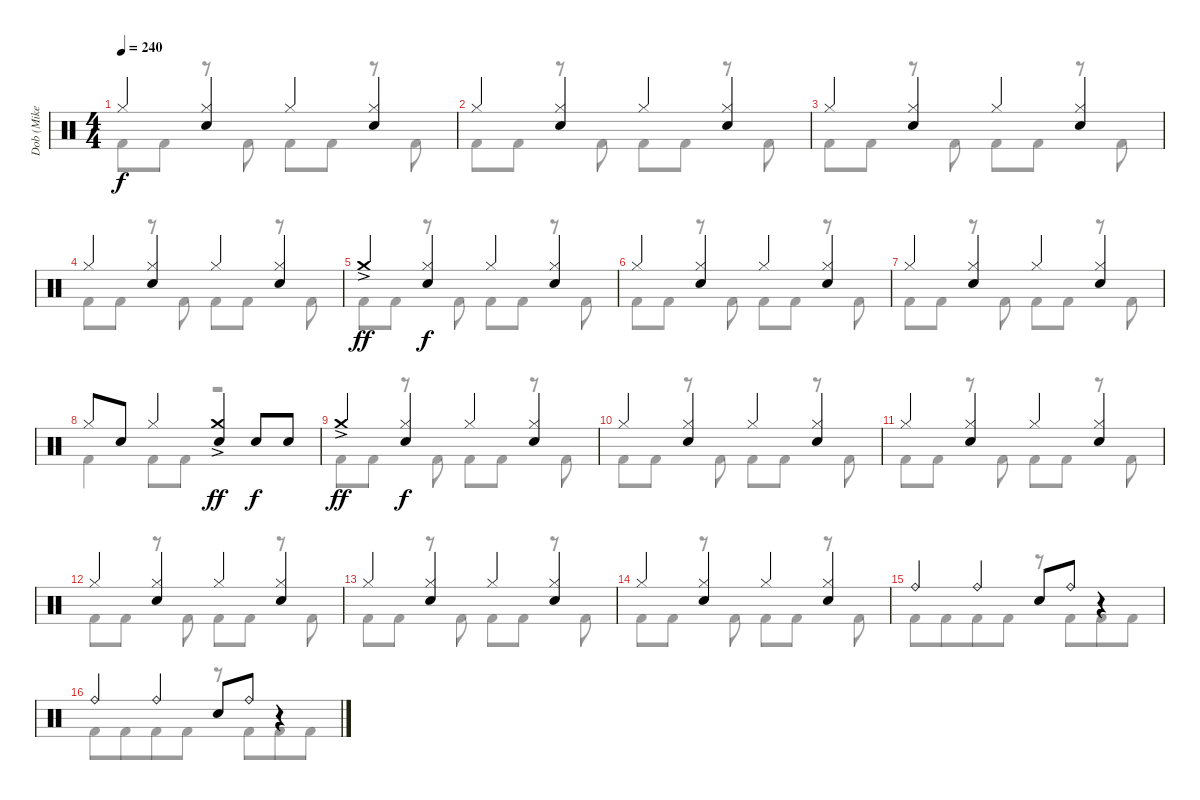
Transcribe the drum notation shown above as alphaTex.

\track ("Dob (Mike Terrana)" "Dob (Mike ") {instrument percussion}
\staff {score}
\articulation defaults
\voice
\ts (4 4)
\tempo 240
\clef neutral
\ks c "Hi-Hat (closed)".4{dy f}
("Hi-Hat (closed)" "Electric Snare (hit)").4 "Hi-Hat (closed)".4 ("Hi-Hat (closed)" "Electric Snare (hit)").4 |
"Hi-Hat (closed)".4 ("Hi-Hat (closed)" "Electric Snare (hit)").4 "Hi-Hat (closed)".4 ("Hi-Hat (closed)" "Electric Snare (hit)").4 |
"Hi-Hat (closed)".4 ("Hi-Hat (closed)" "Electric Snare (hit)").4 "Hi-Hat (closed)".4 ("Hi-Hat (closed)" "Electric Snare (hit)").4 |
"Hi-Hat (closed)".4 ("Hi-Hat (closed)" "Electric Snare (hit)").4 "Hi-Hat (closed)".4 ("Hi-Hat (closed)" "Electric Snare (hit)").4 |
"Crash medium (hit)"{ac}.4{dy ff} ("Hi-Hat (closed)" "Electric Snare (hit)").4{dy f} "Hi-Hat (closed)".4 ("Hi-Hat (closed)" "Electric Snare (hit)").4 |
"Hi-Hat (closed)".4 ("Hi-Hat (closed)" "Electric Snare (hit)").4 "Hi-Hat (closed)".4 ("Hi-Hat (closed)" "Electric Snare (hit)").4 |
"Hi-Hat (closed)".4 ("Hi-Hat (closed)" "Electric Snare (hit)").4 "Hi-Hat (closed)".4 ("Hi-Hat (closed)" "Electric Snare (hit)").4 |
"Hi-Hat (closed)".8 "Electric Snare (hit)".8 "Hi-Hat (closed)".4 ("Crash medium (hit)"{ac} "Electric Snare (hit)").4{dy ff} "Electric Snare (hit)".8{dy f} "Electric Snare (hit)".8 |
"Crash medium (hit)"{ac}.4{dy ff} ("Hi-Hat (closed)" "Electric Snare (hit)").4{dy f} "Hi-Hat (closed)".4 ("Hi-Hat (closed)" "Electric Snare (hit)").4 |
"Hi-Hat (closed)".4 ("Hi-Hat (closed)" "Electric Snare (hit)").4 "Hi-Hat (closed)".4 ("Hi-Hat (closed)" "Electric Snare (hit)").4 |
"Hi-Hat (closed)".4 ("Hi-Hat (closed)" "Electric Snare (hit)").4 "Hi-Hat (closed)".4 ("Hi-Hat (closed)" "Electric Snare (hit)").4 |
"Hi-Hat (closed)".4 ("Hi-Hat (closed)" "Electric Snare (hit)").4 "Hi-Hat (closed)".4 ("Hi-Hat (closed)" "Electric Snare (hit)").4 |
"Hi-Hat (closed)".4 ("Hi-Hat (closed)" "Electric Snare (hit)").4 "Hi-Hat (closed)".4 ("Hi-Hat (closed)" "Electric Snare (hit)").4 |
"Hi-Hat (closed)".4 ("Hi-Hat (closed)" "Electric Snare (hit)").4 "Hi-Hat (closed)".4 ("Hi-Hat (closed)" "Electric Snare (hit)").4 |
"Ride (bell)".4 "Ride (bell)".4 "Electric Snare (hit)".8 "Ride (bell)".8 r.4 |
"Ride (bell)".4 "Ride (bell)".4 "Electric Snare (hit)".8 "Ride (bell)".8 r.4
\voice
\clef neutral
\ottava regular
\simile none
\ks c "Kick (hit) 2".8{dy f} "Kick (hit) 2".8
r.8 "Kick (hit) 2".8 "Kick (hit) 2".8 "Kick (hit) 2".8 r.8 "Kick (hit) 2".8 |
"Kick (hit) 2".8 "Kick (hit) 2".8 r.8 "Kick (hit) 2".8 "Kick (hit) 2".8 "Kick (hit) 2".8 r.8 "Kick (hit) 2".8 |
"Kick (hit) 2".8 "Kick (hit) 2".8 r.8 "Kick (hit) 2".8 "Kick (hit) 2".8 "Kick (hit) 2".8 r.8 "Kick (hit) 2".8 |
"Kick (hit) 2".8 "Kick (hit) 2".8 r.8 "Kick (hit) 2".8 "Kick (hit) 2".8 "Kick (hit) 2".8 r.8 "Kick (hit) 2".8 |
"Kick (hit) 2".8 "Kick (hit) 2".8 r.8 "Kick (hit) 2".8 "Kick (hit) 2".8 "Kick (hit) 2".8 r.8 "Kick (hit) 2".8 |
"Kick (hit) 2".8 "Kick (hit) 2".8 r.8 "Kick (hit) 2".8 "Kick (hit) 2".8 "Kick (hit) 2".8 r.8 "Kick (hit) 2".8 |
"Kick (hit) 2".8 "Kick (hit) 2".8 r.8 "Kick (hit) 2".8 "Kick (hit) 2".8 "Kick (hit) 2".8 r.8 "Kick (hit) 2".8 |
"Kick (hit) 2".4 "Kick (hit) 2".8 "Kick (hit) 2".8 r.2 |
"Kick (hit) 2".8 "Kick (hit) 2".8 r.8 "Kick (hit) 2".8 "Kick (hit) 2".8 "Kick (hit) 2".8 r.8 "Kick (hit) 2".8 |
"Kick (hit) 2".8 "Kick (hit) 2".8 r.8 "Kick (hit) 2".8 "Kick (hit) 2".8 "Kick (hit) 2".8 r.8 "Kick (hit) 2".8 |
"Kick (hit) 2".8 "Kick (hit) 2".8 r.8 "Kick (hit) 2".8 "Kick (hit) 2".8 "Kick (hit) 2".8 r.8 "Kick (hit) 2".8 |
"Kick (hit) 2".8 "Kick (hit) 2".8 r.8 "Kick (hit) 2".8 "Kick (hit) 2".8 "Kick (hit) 2".8 r.8 "Kick (hit) 2".8 |
"Kick (hit) 2".8 "Kick (hit) 2".8 r.8 "Kick (hit) 2".8 "Kick (hit) 2".8 "Kick (hit) 2".8 r.8 "Kick (hit) 2".8 |
"Kick (hit) 2".8 "Kick (hit) 2".8 r.8 "Kick (hit) 2".8 "Kick (hit) 2".8 "Kick (hit) 2".8 r.8 "Kick (hit) 2".8 |
"Kick (hit) 2".8 "Kick (hit) 2".8{beam merge} "Kick (hit) 2".8 "Kick (hit) 2".8 r.8 "Kick (hit) 2".8{beam merge} "Kick (hit) 2".8 "Kick (hit) 2".8 |
"Kick (hit) 2".8 "Kick (hit) 2".8{beam merge} "Kick (hit) 2".8 "Kick (hit) 2".8 r.8 "Kick (hit) 2".8{beam merge} "Kick (hit) 2".8 "Kick (hit) 2".8
